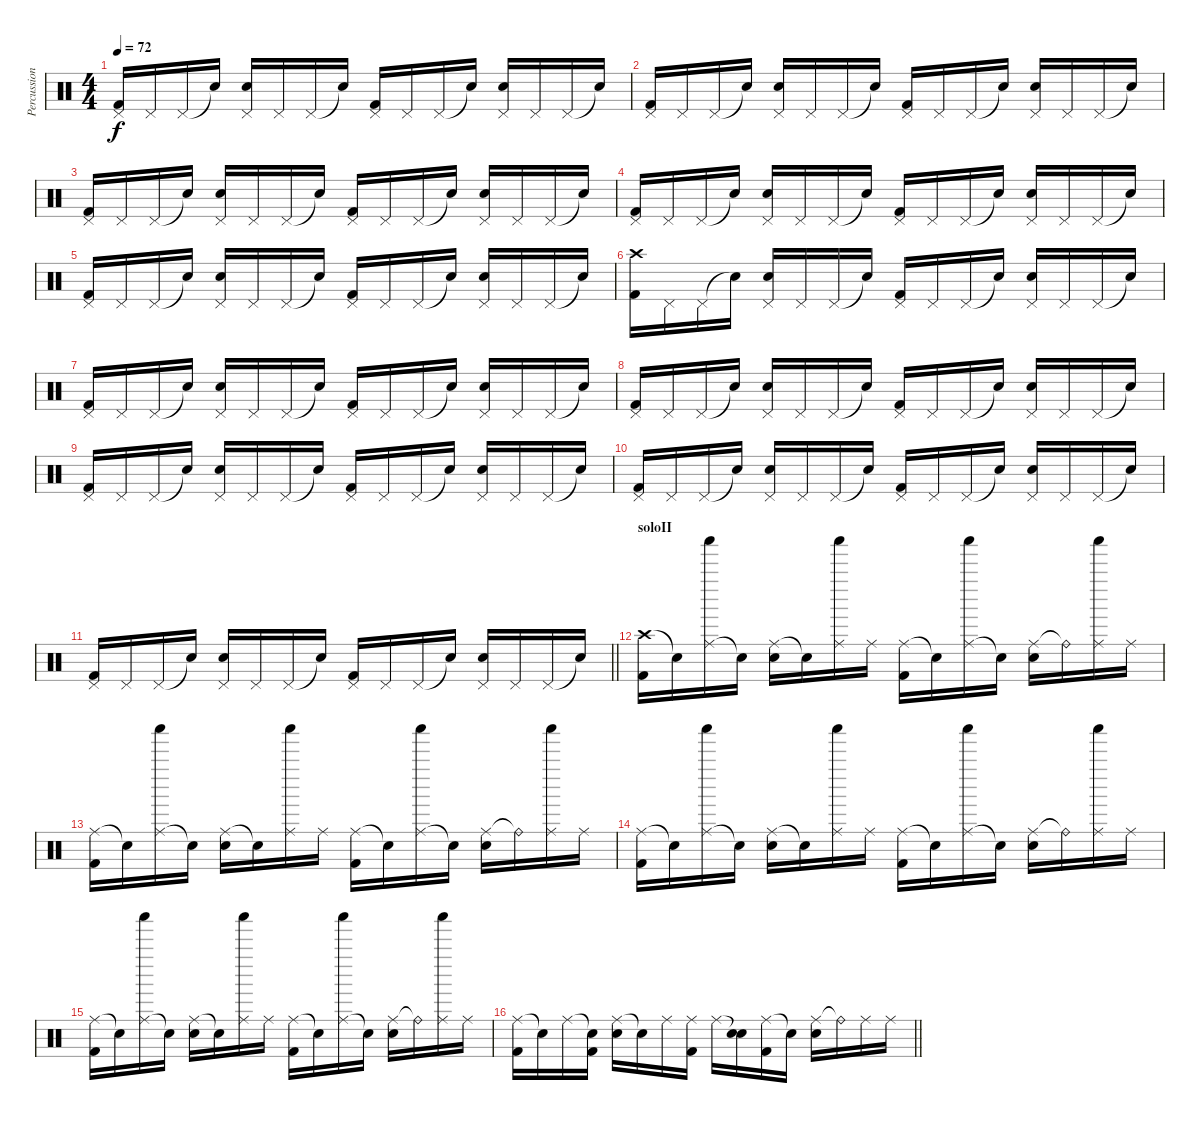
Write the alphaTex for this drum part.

\track ("Percussion" "Percussion") {instrument percussion}
\staff {score}
\articulation defaults
\ts (4 4)
\tempo 72
\clef neutral
\ks c
("Pedal Hi-Hat (hit)" "Kick (hit) 2").16{dy f} "Pedal Hi-Hat (hit)".16 "Pedal Hi-Hat (hit)".16 "Snare (hit)"{t}.16 ("Pedal Hi-Hat (hit)" "Electric Snare (hit)").16 "Pedal Hi-Hat (hit)".16 "Pedal Hi-Hat (hit)".16 "Snare (hit)"{t}.16 ("Pedal Hi-Hat (hit)" "Kick (hit) 2").16 "Pedal Hi-Hat (hit)".16 "Pedal Hi-Hat (hit)".16 "Snare (hit)"{t}.16 ("Pedal Hi-Hat (hit)" "Electric Snare (hit)").16 "Pedal Hi-Hat (hit)".16 "Pedal Hi-Hat (hit)".16 "Snare (hit)"{t}.16 |
("Pedal Hi-Hat (hit)" "Kick (hit) 2").16 "Pedal Hi-Hat (hit)".16 "Pedal Hi-Hat (hit)".16 "Snare (hit)"{t}.16 ("Pedal Hi-Hat (hit)" "Electric Snare (hit)").16 "Pedal Hi-Hat (hit)".16 "Pedal Hi-Hat (hit)".16 "Snare (hit)"{t}.16 ("Pedal Hi-Hat (hit)" "Kick (hit) 2").16 "Pedal Hi-Hat (hit)".16 "Pedal Hi-Hat (hit)".16 "Snare (hit)"{t}.16 ("Pedal Hi-Hat (hit)" "Electric Snare (hit)").16 "Pedal Hi-Hat (hit)".16 "Pedal Hi-Hat (hit)".16 "Snare (hit)"{t}.16 |
("Pedal Hi-Hat (hit)" "Kick (hit) 2").16 "Pedal Hi-Hat (hit)".16 "Pedal Hi-Hat (hit)".16 "Snare (hit)"{t}.16 ("Pedal Hi-Hat (hit)" "Electric Snare (hit)").16 "Pedal Hi-Hat (hit)".16 "Pedal Hi-Hat (hit)".16 "Snare (hit)"{t}.16 ("Pedal Hi-Hat (hit)" "Kick (hit) 2").16 "Pedal Hi-Hat (hit)".16 "Pedal Hi-Hat (hit)".16 "Snare (hit)"{t}.16 ("Pedal Hi-Hat (hit)" "Electric Snare (hit)").16 "Pedal Hi-Hat (hit)".16 "Pedal Hi-Hat (hit)".16 "Snare (hit)"{t}.16 |
("Pedal Hi-Hat (hit)" "Kick (hit) 2").16 "Pedal Hi-Hat (hit)".16 "Pedal Hi-Hat (hit)".16 "Snare (hit)"{t}.16 ("Pedal Hi-Hat (hit)" "Electric Snare (hit)").16 "Pedal Hi-Hat (hit)".16 "Pedal Hi-Hat (hit)".16 "Snare (hit)"{t}.16 ("Pedal Hi-Hat (hit)" "Kick (hit) 2").16 "Pedal Hi-Hat (hit)".16 "Pedal Hi-Hat (hit)".16 "Snare (hit)"{t}.16 ("Pedal Hi-Hat (hit)" "Electric Snare (hit)").16 "Pedal Hi-Hat (hit)".16 "Pedal Hi-Hat (hit)".16 "Snare (hit)"{t}.16 |
("Pedal Hi-Hat (hit)" "Kick (hit) 2").16 "Pedal Hi-Hat (hit)".16 "Pedal Hi-Hat (hit)".16 "Snare (hit)"{t}.16 ("Pedal Hi-Hat (hit)" "Electric Snare (hit)").16 "Pedal Hi-Hat (hit)".16 "Pedal Hi-Hat (hit)".16 "Snare (hit)"{t}.16 ("Pedal Hi-Hat (hit)" "Kick (hit) 2").16 "Pedal Hi-Hat (hit)".16 "Pedal Hi-Hat (hit)".16 "Snare (hit)"{t}.16 ("Pedal Hi-Hat (hit)" "Electric Snare (hit)").16 "Pedal Hi-Hat (hit)".16 "Pedal Hi-Hat (hit)".16 "Snare (hit)"{t}.16 |
("Crash high (hit)" "Kick (hit) 2").16 "Pedal Hi-Hat (hit)".16 "Pedal Hi-Hat (hit)".16 "Snare (hit)"{t}.16 ("Pedal Hi-Hat (hit)" "Electric Snare (hit)").16 "Pedal Hi-Hat (hit)".16 "Pedal Hi-Hat (hit)".16 "Snare (hit)"{t}.16 ("Pedal Hi-Hat (hit)" "Kick (hit) 2").16 "Pedal Hi-Hat (hit)".16 "Pedal Hi-Hat (hit)".16 "Snare (hit)"{t}.16 ("Pedal Hi-Hat (hit)" "Electric Snare (hit)").16 "Pedal Hi-Hat (hit)".16 "Pedal Hi-Hat (hit)".16 "Snare (hit)"{t}.16 |
("Pedal Hi-Hat (hit)" "Kick (hit) 2").16 "Pedal Hi-Hat (hit)".16 "Pedal Hi-Hat (hit)".16 "Snare (hit)"{t}.16 ("Pedal Hi-Hat (hit)" "Electric Snare (hit)").16 "Pedal Hi-Hat (hit)".16 "Pedal Hi-Hat (hit)".16 "Snare (hit)"{t}.16 ("Pedal Hi-Hat (hit)" "Kick (hit) 2").16 "Pedal Hi-Hat (hit)".16 "Pedal Hi-Hat (hit)".16 "Snare (hit)"{t}.16 ("Pedal Hi-Hat (hit)" "Electric Snare (hit)").16 "Pedal Hi-Hat (hit)".16 "Pedal Hi-Hat (hit)".16 "Snare (hit)"{t}.16 |
("Pedal Hi-Hat (hit)" "Kick (hit) 2").16 "Pedal Hi-Hat (hit)".16 "Pedal Hi-Hat (hit)".16 "Snare (hit)"{t}.16 ("Pedal Hi-Hat (hit)" "Electric Snare (hit)").16 "Pedal Hi-Hat (hit)".16 "Pedal Hi-Hat (hit)".16 "Snare (hit)"{t}.16 ("Pedal Hi-Hat (hit)" "Kick (hit) 2").16 "Pedal Hi-Hat (hit)".16 "Pedal Hi-Hat (hit)".16 "Snare (hit)"{t}.16 ("Pedal Hi-Hat (hit)" "Electric Snare (hit)").16 "Pedal Hi-Hat (hit)".16 "Pedal Hi-Hat (hit)".16 "Snare (hit)"{t}.16 |
("Pedal Hi-Hat (hit)" "Kick (hit) 2").16 "Pedal Hi-Hat (hit)".16 "Pedal Hi-Hat (hit)".16 "Snare (hit)"{t}.16 ("Pedal Hi-Hat (hit)" "Electric Snare (hit)").16 "Pedal Hi-Hat (hit)".16 "Pedal Hi-Hat (hit)".16 "Snare (hit)"{t}.16 ("Pedal Hi-Hat (hit)" "Kick (hit) 2").16 "Pedal Hi-Hat (hit)".16 "Pedal Hi-Hat (hit)".16 "Snare (hit)"{t}.16 ("Pedal Hi-Hat (hit)" "Electric Snare (hit)").16 "Pedal Hi-Hat (hit)".16 "Pedal Hi-Hat (hit)".16 "Snare (hit)"{t}.16 |
("Pedal Hi-Hat (hit)" "Kick (hit) 2").16 "Pedal Hi-Hat (hit)".16 "Pedal Hi-Hat (hit)".16 "Snare (hit)"{t}.16 ("Pedal Hi-Hat (hit)" "Electric Snare (hit)").16 "Pedal Hi-Hat (hit)".16 "Pedal Hi-Hat (hit)".16 "Snare (hit)"{t}.16 ("Pedal Hi-Hat (hit)" "Kick (hit) 2").16 "Pedal Hi-Hat (hit)".16 "Pedal Hi-Hat (hit)".16 "Snare (hit)"{t}.16 ("Pedal Hi-Hat (hit)" "Electric Snare (hit)").16 "Pedal Hi-Hat (hit)".16 "Pedal Hi-Hat (hit)".16 "Snare (hit)"{t}.16 |
\barLineRight lightlight
("Pedal Hi-Hat (hit)" "Kick (hit) 2").16 "Pedal Hi-Hat (hit)".16 "Pedal Hi-Hat (hit)".16 "Snare (hit)"{t}.16 ("Pedal Hi-Hat (hit)" "Electric Snare (hit)").16 "Pedal Hi-Hat (hit)".16 "Pedal Hi-Hat (hit)".16 "Snare (hit)"{t}.16 ("Pedal Hi-Hat (hit)" "Kick (hit) 2").16 "Pedal Hi-Hat (hit)".16 "Pedal Hi-Hat (hit)".16 "Snare (hit)"{t}.16 ("Pedal Hi-Hat (hit)" "Electric Snare (hit)").16 "Pedal Hi-Hat (hit)".16 "Pedal Hi-Hat (hit)".16 "Snare (hit)"{t}.16 |
\section ("" "soloII")
("Crash high (hit)" "Kick (hit) 2").16 "Snare (hit)"{t}.16 ("Ride (middle)" "Shaker (hit)").16 "Snare (hit)"{t}.16 ("Ride (middle)" "Electric Snare (hit)").16 "Snare (hit)"{t}.16 ("Ride (middle)" "Shaker (hit)").16 "Ride (middle)".16 ("Ride (middle)" "Kick (hit) 2").16 "Snare (hit)"{t}.16 ("Ride (middle)" "Shaker (hit)").16 "Snare (hit)"{t}.16 ("Ride (middle)" "Electric Snare (hit)").16 "Ride (bell)"{t}.16 ("Ride (middle)" "Shaker (hit)").16 "Ride (middle)".16 |
("Ride (middle)" "Kick (hit) 2").16 "Snare (hit)"{t}.16 ("Ride (middle)" "Shaker (hit)").16 "Snare (hit)"{t}.16 ("Ride (middle)" "Electric Snare (hit)").16 "Snare (hit)"{t}.16 ("Ride (middle)" "Shaker (hit)").16 "Ride (middle)".16 ("Ride (middle)" "Kick (hit) 2").16 "Snare (hit)"{t}.16 ("Ride (middle)" "Shaker (hit)").16 "Snare (hit)"{t}.16 ("Ride (middle)" "Electric Snare (hit)").16 "Ride (bell)"{t}.16 ("Ride (middle)" "Shaker (hit)").16 "Ride (middle)".16 |
("Ride (middle)" "Kick (hit) 2").16 "Snare (hit)"{t}.16 ("Ride (middle)" "Shaker (hit)").16 "Snare (hit)"{t}.16 ("Ride (middle)" "Electric Snare (hit)").16 "Snare (hit)"{t}.16 ("Ride (middle)" "Shaker (hit)").16 "Ride (middle)".16 ("Ride (middle)" "Kick (hit) 2").16 "Snare (hit)"{t}.16 ("Ride (middle)" "Shaker (hit)").16 "Snare (hit)"{t}.16 ("Ride (middle)" "Electric Snare (hit)").16 "Ride (bell)"{t}.16 ("Ride (middle)" "Shaker (hit)").16 "Ride (middle)".16 |
("Ride (middle)" "Kick (hit) 2").16 "Snare (hit)"{t}.16 ("Ride (middle)" "Shaker (hit)").16 "Snare (hit)"{t}.16 ("Ride (middle)" "Electric Snare (hit)").16 "Snare (hit)"{t}.16 ("Ride (middle)" "Shaker (hit)").16 "Ride (middle)".16 ("Ride (middle)" "Kick (hit) 2").16 "Snare (hit)"{t}.16 ("Ride (middle)" "Shaker (hit)").16 "Snare (hit)"{t}.16 ("Ride (middle)" "Electric Snare (hit)").16 "Ride (bell)"{t}.16 ("Ride (middle)" "Shaker (hit)").16 "Ride (middle)".16 |
\barLineRight lightlight
("Ride (middle)" "Kick (hit) 2").16 "Snare (hit)"{t}.16 "Ride (middle)".16 ("Snare (hit)"{t} "Kick (hit) 2").16 ("Ride (middle)" "Electric Snare (hit)").16 "Snare (hit)"{t}.16 "Ride (middle)".16 ("Ride (middle)" "Kick (hit) 2").16 "Ride (middle)".16 ("Snare (hit)"{t} "Electric Snare (hit)").16 ("Ride (middle)" "Kick (hit) 2").16 "Snare (hit)"{t}.16 ("Ride (middle)" "Electric Snare (hit)").16 "Ride (bell)"{t}.16 "Ride (middle)".16 "Ride (middle)".16
